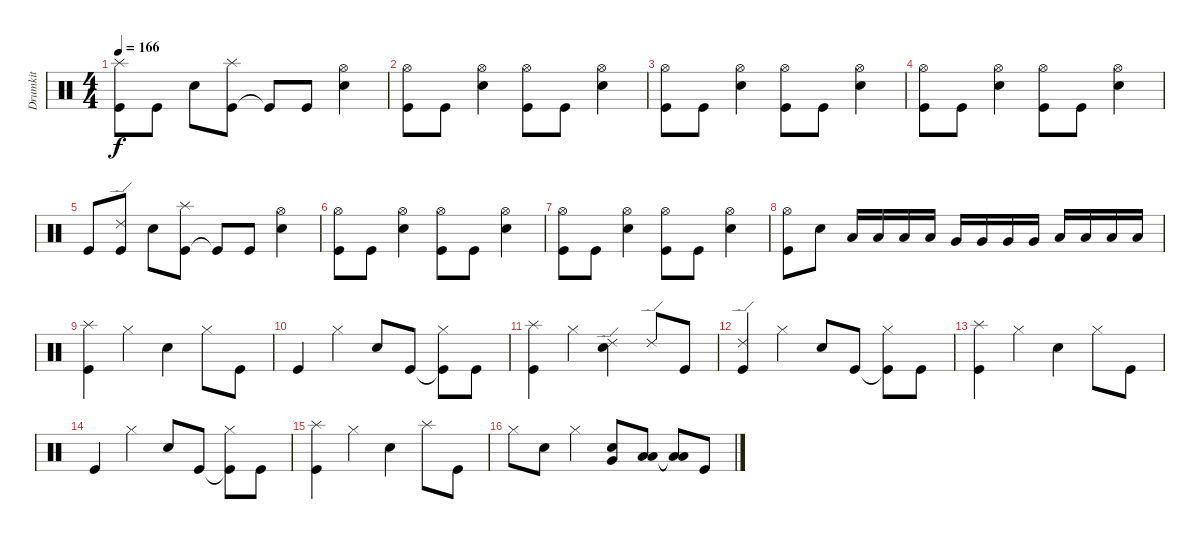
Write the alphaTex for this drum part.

\track ("Drumkit" "Drumkit") {instrument percussion}
\staff {score}
\articulation defaults
\ts (4 4)
\tempo 166
\clef neutral
\ks c
("Kick (hit)" "Splash (hit)").8{dy f} "Kick (hit)".8 "Snare (hit) 2".8 ("Kick (hit)" "Splash (hit)").8 "Kick (hit)"{t}.8 "Kick (hit)".8 ("Snare (hit) 2" "Hi-Hat (open)").4 |
("Kick (hit)" "Hi-Hat (open)").8 "Kick (hit)".8 ("Snare (hit) 2" "Hi-Hat (open)").4 ("Kick (hit)" "Hi-Hat (open)").8 "Kick (hit)".8 ("Snare (hit) 2" "Hi-Hat (open)").4 |
("Kick (hit)" "Hi-Hat (open)").8 "Kick (hit)".8 ("Snare (hit) 2" "Hi-Hat (open)").4 ("Hi-Hat (open)" "Kick (hit)").8 "Kick (hit)".8 ("Snare (hit) 2" "Hi-Hat (open)").4 |
("Kick (hit)" "Hi-Hat (open)").8 "Kick (hit)".8 ("Snare (hit) 2" "Hi-Hat (open)").4 ("Hi-Hat (open)" "Kick (hit)").8 "Kick (hit)".8 ("Snare (hit) 2" "Hi-Hat (open)").4 |
"Kick (hit)".8 ("Kick (hit)" "Ride (edge) 2").8 "Snare (hit) 2".8 ("Kick (hit)" "Splash (hit)").8 "Kick (hit)"{t}.8 "Kick (hit)".8 ("Snare (hit) 2" "Hi-Hat (open)").4 |
("Kick (hit)" "Hi-Hat (open)").8 "Kick (hit)".8 ("Snare (hit) 2" "Hi-Hat (open)").4 ("Hi-Hat (open)" "Kick (hit)").8 "Kick (hit)".8 ("Snare (hit) 2" "Hi-Hat (open)").4 |
("Kick (hit)" "Hi-Hat (open)").8 "Kick (hit)".8 ("Snare (hit) 2" "Hi-Hat (open)").4 ("Hi-Hat (open)" "Kick (hit)").8 "Kick (hit)".8 ("Snare (hit) 2" "Hi-Hat (open)").4 |
("Kick (hit)" "Hi-Hat (open)").8 "Snare (hit) 2".8 "Low Tom (hit)".16 "Low Tom (hit)".16 "Low Tom (hit)".16 "Low Tom (hit)".16 "Very Low Tom (hit)".16 "Very Low Tom (hit)".16 "Very Low Tom (hit)".16 "Very Low Tom (hit)".16 "Low Floor Tom (hit)".16 "Low Floor Tom (hit)".16 "Low Floor Tom (hit)".16 "Low Floor Tom (hit)".16 |
("Kick (hit)" "Splash (hit)").4 "Hi-Hat (closed)".4 "Snare (hit) 2".4 "Hi-Hat (closed)".8 "Kick (hit)".8 |
"Kick (hit)".4 "Hi-Hat (closed)".4 "Snare (hit) 2".8 "Kick (hit)".8 ("Kick (hit)"{t} "Hi-Hat (closed)").8 "Kick (hit)".8 |
("Kick (hit)" "Splash (hit)").4 "Hi-Hat (closed)".4 ("Snare (hit) 2" "Ride (edge) 2").4 "Ride (edge) 2".8 "Kick (hit)".8 |
("Kick (hit)" "Ride (edge) 2").4 "Hi-Hat (closed)".4 "Snare (hit) 2".8 "Kick (hit)".8 ("Kick (hit)"{t} "Hi-Hat (closed)").8 "Kick (hit)".8 |
("Kick (hit)" "Splash (hit)").4 "Hi-Hat (closed)".4 "Snare (hit) 2".4 "Hi-Hat (closed)".8 "Kick (hit)".8 |
"Kick (hit)".4 "Hi-Hat (closed)".4 "Snare (hit) 2".8 "Kick (hit)".8 ("Kick (hit)"{t} "Hi-Hat (closed)").8 "Kick (hit)".8 |
("Kick (hit)" "Splash (hit)").4 "Hi-Hat (closed)".4 "Snare (hit) 2".4 "Splash (hit)".8 "Kick (hit)".8 |
"Hi-Hat (closed)".8 "Snare (hit) 2".8 "Hi-Hat (closed)".4 ("Snare (hit) 2" "Very Low Tom (hit)").8 ("Low Tom (hit)" "Low Floor Tom (hit)").8 ("Low Floor Tom (hit)"{t} "Low Tom (hit)"{t}).8 "Kick (hit)".8
